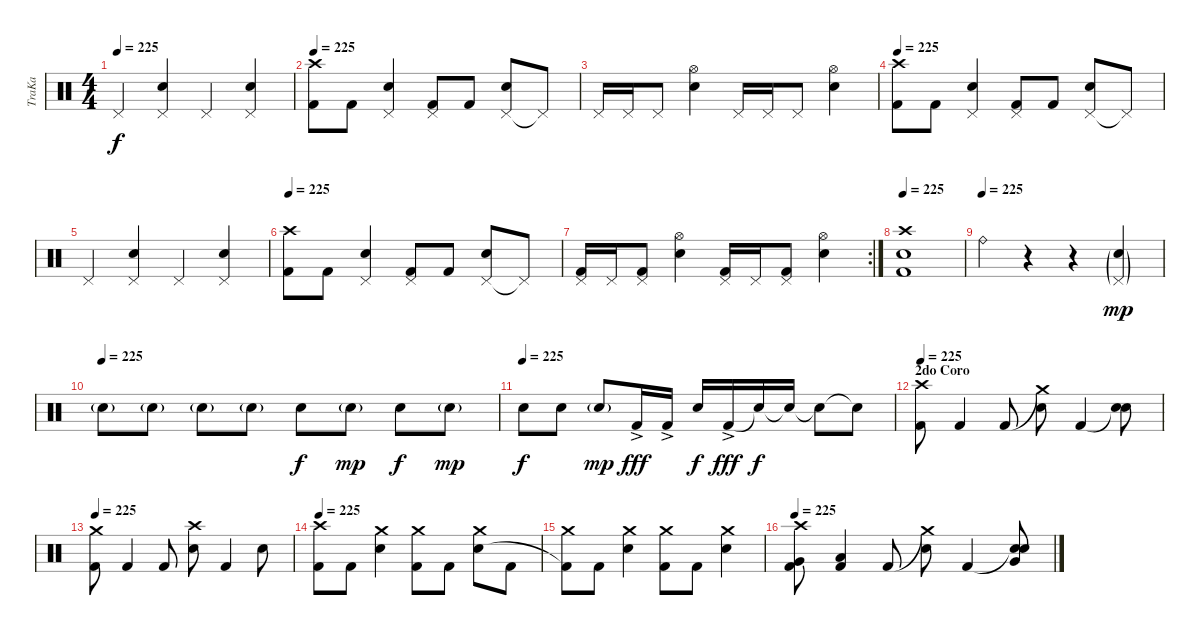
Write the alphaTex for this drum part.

\track ("TraKa" "TraKa") {instrument percussion}
\staff {score}
\articulation defaults
\ts (4 4)
\tempo 225
\clef neutral
\ks c "Pedal Hi-Hat (hit)".4{dy f}
("Pedal Hi-Hat (hit)" "Electric Snare (hit)").4 "Pedal Hi-Hat (hit)".4 ("Pedal Hi-Hat (hit)" "Electric Snare (hit)").4 |
\tempo 225
("Crash high (hit)" "Kick (hit) 2").8 "Kick (hit) 2".8 ("Pedal Hi-Hat (hit)" "Electric Snare (hit)").4 ("Pedal Hi-Hat (hit)" "Kick (hit) 2").8 "Kick (hit) 2".8 ("Pedal Hi-Hat (hit)" "Electric Snare (hit)").8 "Pedal Hi-Hat (hit)"{t}.8 |
"Pedal Hi-Hat (hit)".16 "Pedal Hi-Hat (hit)".16 "Pedal Hi-Hat (hit)".8 ("Hi-Hat (open)" "Electric Snare (hit)").4 "Pedal Hi-Hat (hit)".16 "Pedal Hi-Hat (hit)".16 "Pedal Hi-Hat (hit)".8 ("Hi-Hat (open)" "Electric Snare (hit)").4 |
\tempo 225
("Crash high (hit)" "Kick (hit) 2").8 "Kick (hit) 2".8 ("Pedal Hi-Hat (hit)" "Electric Snare (hit)").4 ("Pedal Hi-Hat (hit)" "Kick (hit) 2").8 "Kick (hit) 2".8 ("Pedal Hi-Hat (hit)" "Electric Snare (hit)").8 "Pedal Hi-Hat (hit)"{t}.8 |
"Pedal Hi-Hat (hit)".4 ("Pedal Hi-Hat (hit)" "Electric Snare (hit)").4 "Pedal Hi-Hat (hit)".4 ("Pedal Hi-Hat (hit)" "Electric Snare (hit)").4 |
\tempo 225
("Crash high (hit)" "Kick (hit) 2").8 "Kick (hit) 2".8 ("Pedal Hi-Hat (hit)" "Electric Snare (hit)").4 ("Pedal Hi-Hat (hit)" "Kick (hit) 2").8 "Kick (hit) 2".8 ("Pedal Hi-Hat (hit)" "Electric Snare (hit)").8 "Pedal Hi-Hat (hit)"{t}.8 |
\rc 2
("Pedal Hi-Hat (hit)" "Kick (hit) 2").16 "Pedal Hi-Hat (hit)".16 ("Pedal Hi-Hat (hit)" "Kick (hit) 2").8 ("Hi-Hat (open)" "Electric Snare (hit)").4 ("Pedal Hi-Hat (hit)" "Kick (hit) 2").16 "Pedal Hi-Hat (hit)".16 ("Pedal Hi-Hat (hit)" "Kick (hit) 2").8 ("Hi-Hat (open)" "Electric Snare (hit)").4 |
\tempo 225
("Crash high (hit)" "Electric Snare (hit)" "Kick (hit) 2").1 |
\tempo (225)
"Ride (bell)".4 r.4 r.4 ("Pedal Hi-Hat (hit)"{g} "Electric Snare (hit)"{g}).4{dy mp} |
\tempo (225)
"Electric Snare (hit)"{g}.8 "Electric Snare (hit)"{g}.8 "Electric Snare (hit)"{g}.8 "Electric Snare (hit)"{g}.8 "Electric Snare (hit)".8{dy f} "Electric Snare (hit)"{g}.8{dy mp} "Electric Snare (hit)".8{dy f} "Electric Snare (hit)"{g}.8{dy mp} |
\tempo (225)
"Electric Snare (hit)".8{dy f} "Electric Snare (hit)".8 "Electric Snare (hit)"{g}.8{dy mp} "Kick (hit) 2"{ac}.16{dy fff} "Kick (hit) 2"{ac}.16 "Electric Snare (hit)".16{dy f} "Kick (hit) 2"{ac}.16{dy fff} "Snare (hit)"{t}.16{dy f} "Snare (hit)"{t}.16 "Snare (hit)"{t}.8 "Snare (hit)"{t}.8 |
\section ("" "2do Coro")
\tempo 225
("Crash high (hit)" "Kick (hit) 2").8 "Kick (hit) 2".4 "Kick (hit) 2".8 ("Crash medium (hit)"{t} "Electric Snare (hit)").8 "Kick (hit) 2".4 ("Snare (hit)"{t} "Electric Snare (hit)").8 |
\tempo 225
("Crash medium (hit)" "Kick (hit) 2").8 "Kick (hit) 2".4 "Kick (hit) 2".8 ("Crash high (hit)" "Electric Snare (hit)").8 "Kick (hit) 2".4 "Electric Snare (hit)".8 |
\tempo 225
("Crash high (hit)" "Kick (hit) 2").8 "Kick (hit) 2".8 ("Crash medium (hit)" "Electric Snare (hit)").4 ("Crash medium (hit)" "Kick (hit) 2").8 "Kick (hit) 2".8 ("Crash medium (hit)" "Electric Snare (hit)").8 "Kick (hit) 2".8 |
("Crash medium (hit)" "Kick (hit) 2"{t}).8 "Kick (hit) 2".8 ("Crash medium (hit)" "Electric Snare (hit)").4 ("Crash medium (hit)" "Kick (hit) 2").8 "Kick (hit) 2".8 ("Crash medium (hit)" "Electric Snare (hit)").4 |
\tempo 225
("Crash high (hit)" "Very Low Tom (hit)" "Kick (hit) 2").8 ("Low Tom (hit)" "Kick (hit) 2").4 "Kick (hit) 2".8 ("Crash medium (hit)"{t} "Electric Snare (hit)").8 "Kick (hit) 2".4 ("Snare (hit)"{t} "Very Low Tom (hit)" "Electric Snare (hit)").8
